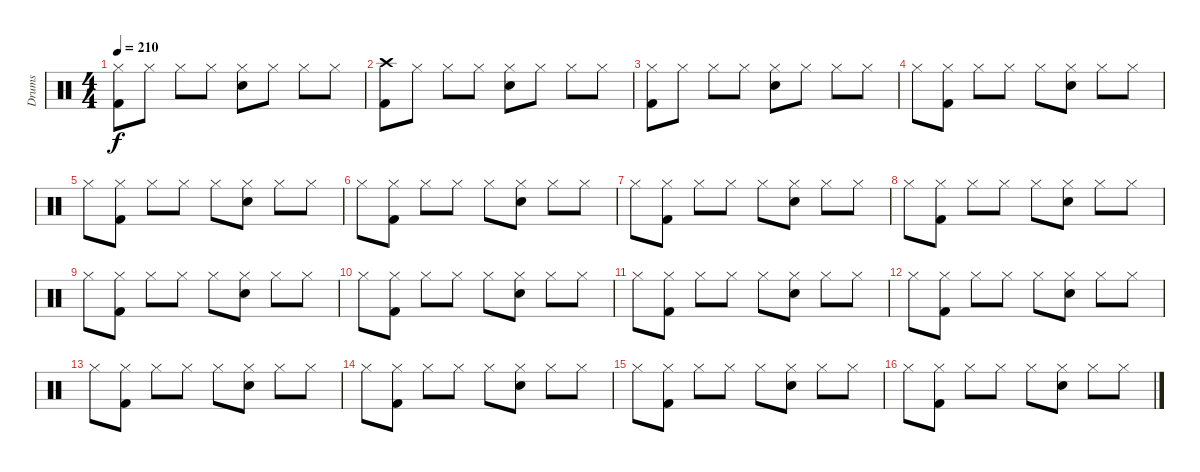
\track ("Drums" "Drums") {instrument percussion}
\staff {score}
\articulation defaults
\ts (4 4)
\tempo 210
\clef neutral
\ks c
("Hi-Hat (closed)" "Kick (hit) 2").8{dy f} "Hi-Hat (closed)".8 "Hi-Hat (closed)".8 "Hi-Hat (closed)".8 ("Hi-Hat (closed)" "Electric Snare (hit)").8 "Hi-Hat (closed)".8 "Hi-Hat (closed)".8 "Hi-Hat (closed)".8 |
("Crash high (hit)" "Kick (hit) 2").8 "Hi-Hat (closed)".8 "Hi-Hat (closed)".8 "Hi-Hat (closed)".8 ("Hi-Hat (closed)" "Electric Snare (hit)").8 "Hi-Hat (closed)".8 "Hi-Hat (closed)".8 "Hi-Hat (closed)".8 |
("Hi-Hat (closed)" "Kick (hit) 2").8 "Hi-Hat (closed)".8 "Hi-Hat (closed)".8 "Hi-Hat (closed)".8 ("Hi-Hat (closed)" "Electric Snare (hit)").8 "Hi-Hat (closed)".8 "Hi-Hat (closed)".8 "Hi-Hat (closed)".8 |
"Hi-Hat (closed)".8 ("Hi-Hat (closed)" "Kick (hit) 2").8 "Hi-Hat (closed)".8 "Hi-Hat (closed)".8 "Hi-Hat (closed)".8 ("Hi-Hat (closed)" "Electric Snare (hit)").8 "Hi-Hat (closed)".8 "Hi-Hat (closed)".8 |
"Hi-Hat (closed)".8 ("Hi-Hat (closed)" "Kick (hit) 2").8 "Hi-Hat (closed)".8 "Hi-Hat (closed)".8 "Hi-Hat (closed)".8 ("Hi-Hat (closed)" "Electric Snare (hit)").8 "Hi-Hat (closed)".8 "Hi-Hat (closed)".8 |
"Hi-Hat (closed)".8 ("Hi-Hat (closed)" "Kick (hit) 2").8 "Hi-Hat (closed)".8 "Hi-Hat (closed)".8 "Hi-Hat (closed)".8 ("Hi-Hat (closed)" "Electric Snare (hit)").8 "Hi-Hat (closed)".8 "Hi-Hat (closed)".8 |
"Hi-Hat (closed)".8 ("Hi-Hat (closed)" "Kick (hit) 2").8 "Hi-Hat (closed)".8 "Hi-Hat (closed)".8 "Hi-Hat (closed)".8 ("Hi-Hat (closed)" "Electric Snare (hit)").8 "Hi-Hat (closed)".8 "Hi-Hat (closed)".8 |
"Hi-Hat (closed)".8 ("Hi-Hat (closed)" "Kick (hit) 2").8 "Hi-Hat (closed)".8 "Hi-Hat (closed)".8 "Hi-Hat (closed)".8 ("Hi-Hat (closed)" "Electric Snare (hit)").8 "Hi-Hat (closed)".8 "Hi-Hat (closed)".8 |
"Hi-Hat (closed)".8 ("Hi-Hat (closed)" "Kick (hit) 2").8 "Hi-Hat (closed)".8 "Hi-Hat (closed)".8 "Hi-Hat (closed)".8 ("Hi-Hat (closed)" "Electric Snare (hit)").8 "Hi-Hat (closed)".8 "Hi-Hat (closed)".8 |
"Hi-Hat (closed)".8 ("Hi-Hat (closed)" "Kick (hit) 2").8 "Hi-Hat (closed)".8 "Hi-Hat (closed)".8 "Hi-Hat (closed)".8 ("Hi-Hat (closed)" "Electric Snare (hit)").8 "Hi-Hat (closed)".8 "Hi-Hat (closed)".8 |
"Hi-Hat (closed)".8 ("Hi-Hat (closed)" "Kick (hit) 2").8 "Hi-Hat (closed)".8 "Hi-Hat (closed)".8 "Hi-Hat (closed)".8 ("Hi-Hat (closed)" "Electric Snare (hit)").8 "Hi-Hat (closed)".8 "Hi-Hat (closed)".8 |
"Hi-Hat (closed)".8 ("Hi-Hat (closed)" "Kick (hit) 2").8 "Hi-Hat (closed)".8 "Hi-Hat (closed)".8 "Hi-Hat (closed)".8 ("Hi-Hat (closed)" "Electric Snare (hit)").8 "Hi-Hat (closed)".8 "Hi-Hat (closed)".8 |
"Hi-Hat (closed)".8 ("Hi-Hat (closed)" "Kick (hit) 2").8 "Hi-Hat (closed)".8 "Hi-Hat (closed)".8 "Hi-Hat (closed)".8 ("Hi-Hat (closed)" "Electric Snare (hit)").8 "Hi-Hat (closed)".8 "Hi-Hat (closed)".8 |
"Hi-Hat (closed)".8 ("Hi-Hat (closed)" "Kick (hit) 2").8 "Hi-Hat (closed)".8 "Hi-Hat (closed)".8 "Hi-Hat (closed)".8 ("Hi-Hat (closed)" "Electric Snare (hit)").8 "Hi-Hat (closed)".8 "Hi-Hat (closed)".8 |
"Hi-Hat (closed)".8 ("Hi-Hat (closed)" "Kick (hit) 2").8 "Hi-Hat (closed)".8 "Hi-Hat (closed)".8 "Hi-Hat (closed)".8 ("Hi-Hat (closed)" "Electric Snare (hit)").8 "Hi-Hat (closed)".8 "Hi-Hat (closed)".8 |
"Hi-Hat (closed)".8 ("Hi-Hat (closed)" "Kick (hit) 2").8 "Hi-Hat (closed)".8 "Hi-Hat (closed)".8 "Hi-Hat (closed)".8 ("Hi-Hat (closed)" "Electric Snare (hit)").8 "Hi-Hat (closed)".8 "Hi-Hat (closed)".8
